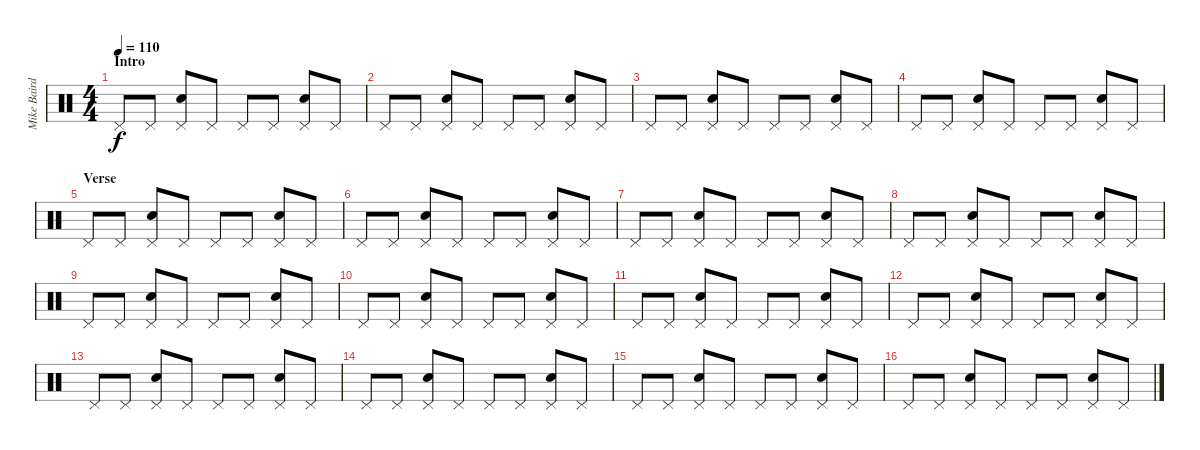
\track ("Mike Baird [drums]" "Mike Baird") {instrument percussion}
\staff {score}
\articulation defaults
\ts (4 4)
\section ("" "Intro")
\tempo 110
\clef neutral
\ks c "Pedal Hi-Hat (hit)".8{dy f} "Pedal Hi-Hat (hit)".8
("Pedal Hi-Hat (hit)" "Electric Snare (hit)").8 "Pedal Hi-Hat (hit)".8 "Pedal Hi-Hat (hit)".8 "Pedal Hi-Hat (hit)".8 ("Pedal Hi-Hat (hit)" "Electric Snare (hit)").8 "Pedal Hi-Hat (hit)".8 |
"Pedal Hi-Hat (hit)".8 "Pedal Hi-Hat (hit)".8 ("Pedal Hi-Hat (hit)" "Electric Snare (hit)").8 "Pedal Hi-Hat (hit)".8 "Pedal Hi-Hat (hit)".8 "Pedal Hi-Hat (hit)".8 ("Pedal Hi-Hat (hit)" "Electric Snare (hit)").8 "Pedal Hi-Hat (hit)".8 |
"Pedal Hi-Hat (hit)".8 "Pedal Hi-Hat (hit)".8 ("Pedal Hi-Hat (hit)" "Electric Snare (hit)").8 "Pedal Hi-Hat (hit)".8 "Pedal Hi-Hat (hit)".8 "Pedal Hi-Hat (hit)".8 ("Pedal Hi-Hat (hit)" "Electric Snare (hit)").8 "Pedal Hi-Hat (hit)".8 |
"Pedal Hi-Hat (hit)".8 "Pedal Hi-Hat (hit)".8 ("Pedal Hi-Hat (hit)" "Electric Snare (hit)").8 "Pedal Hi-Hat (hit)".8 "Pedal Hi-Hat (hit)".8 "Pedal Hi-Hat (hit)".8 ("Pedal Hi-Hat (hit)" "Electric Snare (hit)").8 "Pedal Hi-Hat (hit)".8 |
\section ("" "Verse")
"Pedal Hi-Hat (hit)".8 "Pedal Hi-Hat (hit)".8 ("Pedal Hi-Hat (hit)" "Electric Snare (hit)").8 "Pedal Hi-Hat (hit)".8 "Pedal Hi-Hat (hit)".8 "Pedal Hi-Hat (hit)".8 ("Pedal Hi-Hat (hit)" "Electric Snare (hit)").8 "Pedal Hi-Hat (hit)".8 |
"Pedal Hi-Hat (hit)".8 "Pedal Hi-Hat (hit)".8 ("Pedal Hi-Hat (hit)" "Electric Snare (hit)").8 "Pedal Hi-Hat (hit)".8 "Pedal Hi-Hat (hit)".8 "Pedal Hi-Hat (hit)".8 ("Pedal Hi-Hat (hit)" "Electric Snare (hit)").8 "Pedal Hi-Hat (hit)".8 |
"Pedal Hi-Hat (hit)".8 "Pedal Hi-Hat (hit)".8 ("Pedal Hi-Hat (hit)" "Electric Snare (hit)").8 "Pedal Hi-Hat (hit)".8 "Pedal Hi-Hat (hit)".8 "Pedal Hi-Hat (hit)".8 ("Pedal Hi-Hat (hit)" "Electric Snare (hit)").8 "Pedal Hi-Hat (hit)".8 |
"Pedal Hi-Hat (hit)".8 "Pedal Hi-Hat (hit)".8 ("Pedal Hi-Hat (hit)" "Electric Snare (hit)").8 "Pedal Hi-Hat (hit)".8 "Pedal Hi-Hat (hit)".8 "Pedal Hi-Hat (hit)".8 ("Pedal Hi-Hat (hit)" "Electric Snare (hit)").8 "Pedal Hi-Hat (hit)".8 |
"Pedal Hi-Hat (hit)".8 "Pedal Hi-Hat (hit)".8 ("Pedal Hi-Hat (hit)" "Electric Snare (hit)").8 "Pedal Hi-Hat (hit)".8 "Pedal Hi-Hat (hit)".8 "Pedal Hi-Hat (hit)".8 ("Pedal Hi-Hat (hit)" "Electric Snare (hit)").8 "Pedal Hi-Hat (hit)".8 |
"Pedal Hi-Hat (hit)".8 "Pedal Hi-Hat (hit)".8 ("Pedal Hi-Hat (hit)" "Electric Snare (hit)").8 "Pedal Hi-Hat (hit)".8 "Pedal Hi-Hat (hit)".8 "Pedal Hi-Hat (hit)".8 ("Pedal Hi-Hat (hit)" "Electric Snare (hit)").8 "Pedal Hi-Hat (hit)".8 |
"Pedal Hi-Hat (hit)".8 "Pedal Hi-Hat (hit)".8 ("Pedal Hi-Hat (hit)" "Electric Snare (hit)").8 "Pedal Hi-Hat (hit)".8 "Pedal Hi-Hat (hit)".8 "Pedal Hi-Hat (hit)".8 ("Pedal Hi-Hat (hit)" "Electric Snare (hit)").8 "Pedal Hi-Hat (hit)".8 |
"Pedal Hi-Hat (hit)".8 "Pedal Hi-Hat (hit)".8 ("Pedal Hi-Hat (hit)" "Electric Snare (hit)").8 "Pedal Hi-Hat (hit)".8 "Pedal Hi-Hat (hit)".8 "Pedal Hi-Hat (hit)".8 ("Pedal Hi-Hat (hit)" "Electric Snare (hit)").8 "Pedal Hi-Hat (hit)".8 |
"Pedal Hi-Hat (hit)".8 "Pedal Hi-Hat (hit)".8 ("Pedal Hi-Hat (hit)" "Electric Snare (hit)").8 "Pedal Hi-Hat (hit)".8 "Pedal Hi-Hat (hit)".8 "Pedal Hi-Hat (hit)".8 ("Pedal Hi-Hat (hit)" "Electric Snare (hit)").8 "Pedal Hi-Hat (hit)".8 |
"Pedal Hi-Hat (hit)".8 "Pedal Hi-Hat (hit)".8 ("Pedal Hi-Hat (hit)" "Electric Snare (hit)").8 "Pedal Hi-Hat (hit)".8 "Pedal Hi-Hat (hit)".8 "Pedal Hi-Hat (hit)".8 ("Pedal Hi-Hat (hit)" "Electric Snare (hit)").8 "Pedal Hi-Hat (hit)".8 |
"Pedal Hi-Hat (hit)".8 "Pedal Hi-Hat (hit)".8 ("Pedal Hi-Hat (hit)" "Electric Snare (hit)").8 "Pedal Hi-Hat (hit)".8 "Pedal Hi-Hat (hit)".8 "Pedal Hi-Hat (hit)".8 ("Pedal Hi-Hat (hit)" "Electric Snare (hit)").8 "Pedal Hi-Hat (hit)".8 |
"Pedal Hi-Hat (hit)".8 "Pedal Hi-Hat (hit)".8 ("Pedal Hi-Hat (hit)" "Electric Snare (hit)").8 "Pedal Hi-Hat (hit)".8 "Pedal Hi-Hat (hit)".8 "Pedal Hi-Hat (hit)".8 ("Pedal Hi-Hat (hit)" "Electric Snare (hit)").8 "Pedal Hi-Hat (hit)".8
